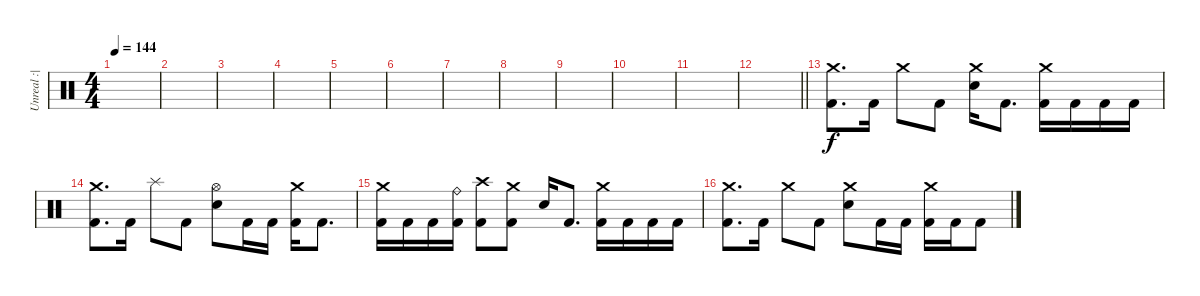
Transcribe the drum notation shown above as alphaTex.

\track ("Unreal :|" "Unreal :|") {instrument percussion}
\staff {score}
\articulation defaults
\ts (4 4)
\section ("" "")
\tempo 144
\clef neutral
\ks c
|
|
|
|
|
|
|
|
|
|
|
\barLineRight lightlight
|
\section ("" "")
("Crash medium (hit)" "Kick (hit) 2").8{d} "Kick (hit) 2".16 "Crash medium (hit)".8 "Kick (hit) 2".8 ("Crash medium (hit)" "Electric Snare (hit)").16 "Kick (hit) 2".8{d} ("Crash medium (hit)" "Kick (hit) 2").16 "Kick (hit) 2".16 "Kick (hit) 2".16 "Kick (hit) 2".16 |
("Crash medium (hit)" "Kick (hit) 2").8{d} "Kick (hit) 2".16 "Splash (hit)".8 "Kick (hit) 2".8 ("Hi-Hat (open)" "Electric Snare (hit)").8 "Kick (hit) 2".16 "Kick (hit) 2".16 ("Crash medium (hit)" "Kick (hit) 2").16 "Kick (hit) 2".8{d} |
("Crash medium (hit)" "Kick (hit) 2").16 "Kick (hit) 2".16 "Kick (hit) 2".16 ("Ride (bell)" "Kick (hit) 2").16 ("Crash high (hit)" "Kick (hit) 2").8 ("Crash medium (hit)" "Kick (hit) 2").8 "Electric Snare (hit)".16 "Kick (hit) 2".8{d} ("Crash medium (hit)" "Kick (hit) 2").16 "Kick (hit) 2".16 "Kick (hit) 2".16 "Kick (hit) 2".16 |
("Crash medium (hit)" "Kick (hit) 2").8{d} "Kick (hit) 2".16 "Crash medium (hit)".8 "Kick (hit) 2".8 ("Crash medium (hit)" "Electric Snare (hit)").8 "Kick (hit) 2".16 "Kick (hit) 2".16 ("Crash medium (hit)" "Kick (hit) 2").16 "Kick (hit) 2".16 "Kick (hit) 2".8
